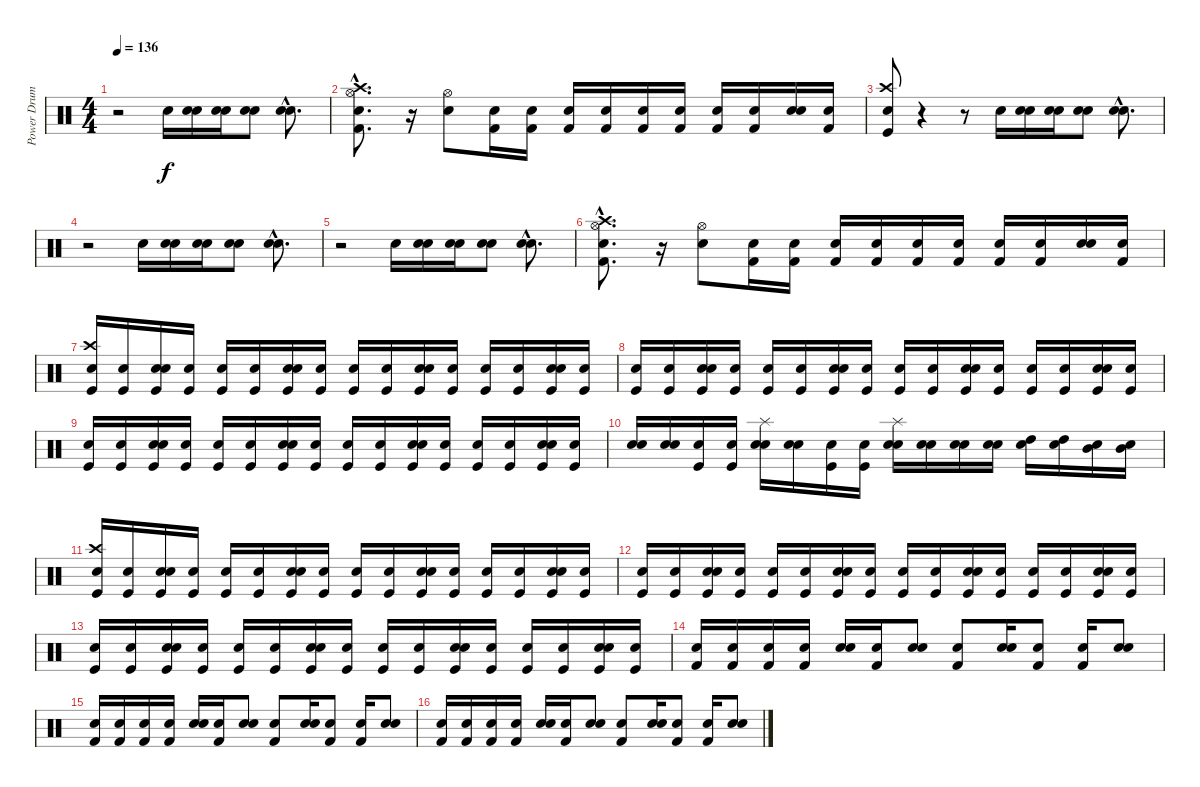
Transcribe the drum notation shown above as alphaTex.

\track ("Power Drums" "Power Drum") {instrument percussion}
\staff {score}
\articulation defaults
\ts (4 4)
\tempo 136
\clef neutral
\ks c
r.2{dy f} "Snare (hit) 2".16 ("Snare (hit)" "Snare (hit) 2").16 ("Snare (hit)" "Snare (hit) 2").16 ("Snare (hit)" "Snare (hit) 2").8 ("Snare (hit)"{hac} "Snare (hit) 2"{hac}).8{d} |
("Snare (hit)"{hac} "Kick (hit) 2"{hac} "Hi-Hat (open)"{hac} "Crash high (hit)"{hac}).8{d} r.16 ("Snare (hit) 2" "Hi-Hat (open)").8 ("Snare (hit)" "Kick (hit) 2").16 ("Snare (hit)" "Kick (hit) 2").16 ("Snare (hit)" "Kick (hit) 2").16 ("Snare (hit)" "Kick (hit) 2").16 ("Snare (hit)" "Kick (hit) 2").16 ("Snare (hit)" "Kick (hit) 2").16 ("Snare (hit)" "Kick (hit) 2").16 ("Snare (hit)" "Kick (hit) 2").16 ("Snare (hit)" "Snare (hit) 2").16 ("Snare (hit)" "Kick (hit) 2").16 |
("Snare (hit)" "Kick (hit)" "Crash high (hit)").8 r.4 r.8 "Snare (hit) 2".16 ("Snare (hit)" "Snare (hit) 2").16 ("Snare (hit)" "Snare (hit) 2").16 ("Snare (hit)" "Snare (hit) 2").8 ("Snare (hit)"{hac} "Snare (hit) 2"{hac}).8{d} |
r.2 "Snare (hit) 2".16 ("Snare (hit)" "Snare (hit) 2").16 ("Snare (hit)" "Snare (hit) 2").16 ("Snare (hit)" "Snare (hit) 2").8 ("Snare (hit)"{hac} "Snare (hit) 2"{hac}).8{d} |
r.2 "Snare (hit) 2".16 ("Snare (hit)" "Snare (hit) 2").16 ("Snare (hit)" "Snare (hit) 2").16 ("Snare (hit)" "Snare (hit) 2").8 ("Snare (hit)"{hac} "Snare (hit) 2"{hac}).8{d} |
("Snare (hit)"{hac} "Kick (hit) 2"{hac} "Hi-Hat (open)"{hac} "Crash high (hit)"{hac}).8{d} r.16 ("Snare (hit) 2" "Hi-Hat (open)").8 ("Snare (hit)" "Kick (hit) 2").16 ("Snare (hit)" "Kick (hit) 2").16 ("Snare (hit)" "Kick (hit) 2").16 ("Snare (hit)" "Kick (hit) 2").16 ("Snare (hit)" "Kick (hit) 2").16 ("Snare (hit)" "Kick (hit) 2").16 ("Snare (hit)" "Kick (hit) 2").16 ("Snare (hit)" "Kick (hit) 2").16 ("Snare (hit)" "Snare (hit) 2").16 ("Snare (hit)" "Kick (hit) 2").16 |
("Snare (hit)" "Kick (hit)" "Crash high (hit)").16 ("Snare (hit)" "Kick (hit)").16 ("Snare (hit)" "Kick (hit)" "Snare (hit) 2").16 ("Snare (hit)" "Kick (hit)").16 ("Snare (hit)" "Kick (hit)").16 ("Snare (hit)" "Kick (hit)").16 ("Snare (hit)" "Kick (hit)" "Snare (hit) 2").16 ("Snare (hit)" "Kick (hit)").16 ("Snare (hit)" "Kick (hit)").16 ("Snare (hit)" "Kick (hit)").16 ("Snare (hit)" "Kick (hit)" "Snare (hit) 2").16 ("Snare (hit)" "Kick (hit)").16 ("Snare (hit)" "Kick (hit)").16 ("Snare (hit)" "Kick (hit)").16 ("Snare (hit)" "Kick (hit)" "Snare (hit) 2").16 ("Snare (hit)" "Kick (hit)").16 |
("Snare (hit)" "Kick (hit)").16 ("Snare (hit)" "Kick (hit)").16 ("Snare (hit)" "Kick (hit)" "Snare (hit) 2").16 ("Snare (hit)" "Kick (hit)").16 ("Snare (hit)" "Kick (hit)").16 ("Snare (hit)" "Kick (hit)").16 ("Snare (hit)" "Kick (hit)" "Snare (hit) 2").16 ("Snare (hit)" "Kick (hit)").16 ("Snare (hit)" "Kick (hit)").16 ("Snare (hit)" "Kick (hit)").16 ("Snare (hit)" "Kick (hit)" "Snare (hit) 2").16 ("Snare (hit)" "Kick (hit)").16 ("Snare (hit)" "Kick (hit)").16 ("Snare (hit)" "Kick (hit)").16 ("Snare (hit)" "Kick (hit)" "Snare (hit) 2").16 ("Snare (hit)" "Kick (hit)").16 |
("Snare (hit)" "Kick (hit)").16 ("Snare (hit)" "Kick (hit)").16 ("Snare (hit)" "Kick (hit)" "Snare (hit) 2").16 ("Snare (hit)" "Kick (hit)").16 ("Snare (hit)" "Kick (hit)").16 ("Snare (hit)" "Kick (hit)").16 ("Snare (hit)" "Kick (hit)" "Snare (hit) 2").16 ("Snare (hit)" "Kick (hit)").16 ("Snare (hit)" "Kick (hit)").16 ("Snare (hit)" "Kick (hit)").16 ("Snare (hit)" "Kick (hit)" "Snare (hit) 2").16 ("Snare (hit)" "Kick (hit)").16 ("Snare (hit)" "Kick (hit)").16 ("Snare (hit)" "Kick (hit)").16 ("Snare (hit)" "Kick (hit)" "Snare (hit) 2").16 ("Snare (hit)" "Kick (hit)").16 |
("Snare (hit)" "Snare (hit) 2").16 ("Snare (hit)" "Snare (hit) 2").16 ("Snare (hit)" "Kick (hit)").16 ("Snare (hit)" "Kick (hit)").16 ("Snare (hit)" "Snare (hit) 2" "Splash (hit)").16 ("Snare (hit)" "Snare (hit) 2").16 ("Snare (hit)" "Kick (hit)").16 ("Snare (hit)" "Kick (hit)").16 ("Snare (hit)" "Snare (hit) 2" "Splash (hit)").16 ("Snare (hit)" "Snare (hit) 2").16 ("Snare (hit)" "Snare (hit) 2").16 ("Snare (hit)" "Snare (hit) 2").16 ("Snare (hit)" "High Tom (hit)").16 ("Snare (hit)" "High Tom (hit)").16 ("Snare (hit)" "Mid Tom (hit)").16 ("Snare (hit)" "Mid Tom (hit)").16 |
("Snare (hit)" "Kick (hit)" "Crash high (hit)").16 ("Snare (hit)" "Kick (hit)").16 ("Snare (hit)" "Kick (hit)" "Snare (hit) 2").16 ("Snare (hit)" "Kick (hit)").16 ("Snare (hit)" "Kick (hit)").16 ("Snare (hit)" "Kick (hit)").16 ("Snare (hit)" "Kick (hit)" "Snare (hit) 2").16 ("Snare (hit)" "Kick (hit)").16 ("Snare (hit)" "Kick (hit)").16 ("Snare (hit)" "Kick (hit)").16 ("Snare (hit)" "Kick (hit)" "Snare (hit) 2").16 ("Snare (hit)" "Kick (hit)").16 ("Snare (hit)" "Kick (hit)").16 ("Snare (hit)" "Kick (hit)").16 ("Snare (hit)" "Kick (hit)" "Snare (hit) 2").16 ("Snare (hit)" "Kick (hit)").16 |
("Snare (hit)" "Kick (hit)").16 ("Snare (hit)" "Kick (hit)").16 ("Snare (hit)" "Kick (hit)" "Snare (hit) 2").16 ("Snare (hit)" "Kick (hit)").16 ("Snare (hit)" "Kick (hit)").16 ("Snare (hit)" "Kick (hit)").16 ("Snare (hit)" "Kick (hit)" "Snare (hit) 2").16 ("Snare (hit)" "Kick (hit)").16 ("Snare (hit)" "Kick (hit)").16 ("Snare (hit)" "Kick (hit)").16 ("Snare (hit)" "Kick (hit)" "Snare (hit) 2").16 ("Snare (hit)" "Kick (hit)").16 ("Snare (hit)" "Kick (hit)").16 ("Snare (hit)" "Kick (hit)").16 ("Snare (hit)" "Kick (hit)" "Snare (hit) 2").16 ("Snare (hit)" "Kick (hit)").16 |
("Snare (hit)" "Kick (hit)").16 ("Snare (hit)" "Kick (hit)").16 ("Snare (hit)" "Kick (hit)" "Snare (hit) 2").16 ("Snare (hit)" "Kick (hit)").16 ("Snare (hit)" "Kick (hit)").16 ("Snare (hit)" "Kick (hit)").16 ("Snare (hit)" "Kick (hit)" "Snare (hit) 2").16 ("Snare (hit)" "Kick (hit)").16 ("Snare (hit)" "Kick (hit)").16 ("Snare (hit)" "Kick (hit)").16 ("Snare (hit)" "Kick (hit)" "Snare (hit) 2").16 ("Snare (hit)" "Kick (hit)").16 ("Snare (hit)" "Kick (hit)").16 ("Snare (hit)" "Kick (hit)").16 ("Snare (hit)" "Kick (hit)" "Snare (hit) 2").16 ("Snare (hit)" "Kick (hit)").16 |
("Snare (hit)" "Kick (hit) 2").16 ("Snare (hit)" "Kick (hit) 2").16 ("Snare (hit)" "Kick (hit) 2").16 ("Snare (hit)" "Kick (hit) 2").16 ("Snare (hit)" "Snare (hit) 2").16 ("Snare (hit)" "Kick (hit) 2").16 ("Snare (hit)" "Snare (hit) 2").8 ("Snare (hit)" "Kick (hit) 2").8 ("Snare (hit)" "Snare (hit) 2").16 ("Snare (hit)" "Kick (hit) 2").8 ("Snare (hit)" "Kick (hit) 2").16 ("Snare (hit)" "Snare (hit) 2").8 |
("Snare (hit)" "Kick (hit) 2").16 ("Snare (hit)" "Kick (hit) 2").16 ("Snare (hit)" "Kick (hit) 2").16 ("Snare (hit)" "Kick (hit) 2").16 ("Snare (hit)" "Snare (hit) 2").16 ("Snare (hit)" "Kick (hit) 2").16 ("Snare (hit)" "Snare (hit) 2").8 ("Snare (hit)" "Kick (hit) 2").8 ("Snare (hit)" "Snare (hit) 2").16 ("Snare (hit)" "Kick (hit) 2").8 ("Snare (hit)" "Kick (hit) 2").16 ("Snare (hit)" "Snare (hit) 2").8 |
("Snare (hit)" "Kick (hit) 2").16 ("Snare (hit)" "Kick (hit) 2").16 ("Snare (hit)" "Kick (hit) 2").16 ("Snare (hit)" "Kick (hit) 2").16 ("Snare (hit)" "Snare (hit) 2").16 ("Snare (hit)" "Kick (hit) 2").16 ("Snare (hit)" "Snare (hit) 2").8 ("Snare (hit)" "Kick (hit) 2").8 ("Snare (hit)" "Snare (hit) 2").16 ("Snare (hit)" "Kick (hit) 2").8 ("Snare (hit)" "Kick (hit) 2").16 ("Snare (hit)" "Snare (hit) 2").8
